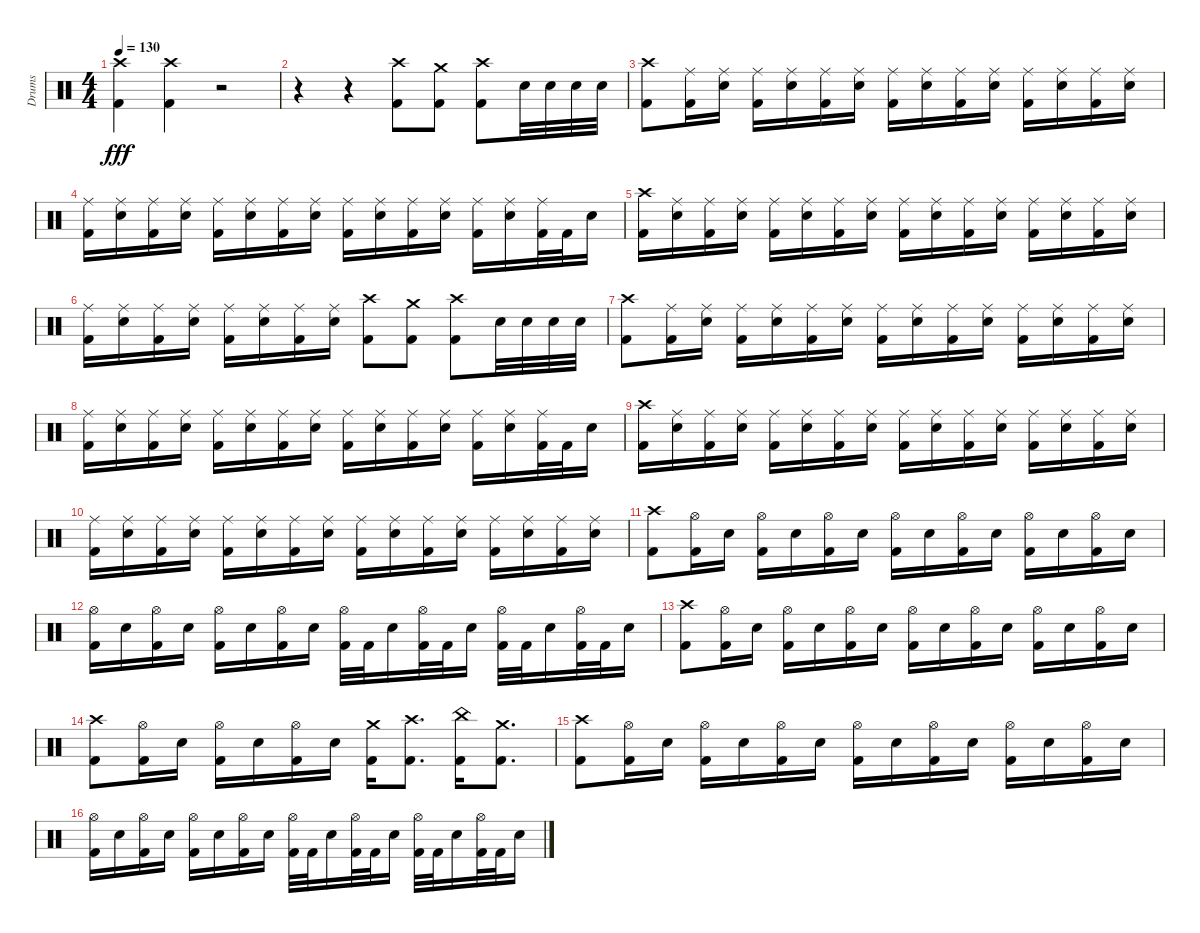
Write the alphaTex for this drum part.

\track ("Drums" "Drums") {instrument percussion}
\staff {score}
\articulation defaults
\ts (4 4)
\tempo 130
\clef neutral
\ks c
("Kick (hit) 2" "Crash high (hit)").4{dy fff} ("Kick (hit) 2" "Crash high (hit)").4 r.2 |
r.4 r.4 ("Kick (hit) 2" "Crash high (hit)").8 ("Kick (hit) 2" "Crash medium (hit)").8 ("Kick (hit) 2" "Crash high (hit)").8 "Snare (hit) 2".32 "Snare (hit) 2".32 "Snare (hit) 2".32 "Snare (hit) 2".32 |
("Kick (hit) 2" "Crash high (hit)").8 ("Kick (hit) 2" "Ride (middle)").16 ("Snare (hit) 2" "Ride (middle)").16 ("Kick (hit) 2" "Ride (middle)").16 ("Snare (hit) 2" "Ride (middle)").16 ("Kick (hit) 2" "Ride (middle)").16 ("Snare (hit) 2" "Ride (middle)").16 ("Kick (hit) 2" "Ride (middle)").16 ("Snare (hit) 2" "Ride (middle)").16 ("Kick (hit) 2" "Ride (middle)").16 ("Snare (hit) 2" "Ride (middle)").16 ("Kick (hit) 2" "Ride (middle)").16 ("Snare (hit) 2" "Ride (middle)").16 ("Kick (hit) 2" "Ride (middle)").16 ("Snare (hit) 2" "Ride (middle)").16 |
("Kick (hit) 2" "Ride (middle)").16 ("Snare (hit) 2" "Ride (middle)").16 ("Kick (hit) 2" "Ride (middle)").16 ("Snare (hit) 2" "Ride (middle)").16 ("Kick (hit) 2" "Ride (middle)").16 ("Snare (hit) 2" "Ride (middle)").16 ("Kick (hit) 2" "Ride (middle)").16 ("Snare (hit) 2" "Ride (middle)").16 ("Kick (hit) 2" "Ride (middle)").16 ("Snare (hit) 2" "Ride (middle)").16 ("Kick (hit) 2" "Ride (middle)").16 ("Snare (hit) 2" "Ride (middle)").16 ("Kick (hit) 2" "Ride (middle)").16 ("Snare (hit) 2" "Ride (middle)").16 ("Kick (hit) 2" "Ride (middle)").32 "Kick (hit) 2".32 "Snare (hit) 2".16 |
("Kick (hit) 2" "Crash high (hit)").16 ("Snare (hit) 2" "Ride (middle)").16 ("Kick (hit) 2" "Ride (middle)").16 ("Snare (hit) 2" "Ride (middle)").16 ("Kick (hit) 2" "Ride (middle)").16 ("Snare (hit) 2" "Ride (middle)").16 ("Kick (hit) 2" "Ride (middle)").16 ("Snare (hit) 2" "Ride (middle)").16 ("Kick (hit) 2" "Ride (middle)").16 ("Snare (hit) 2" "Ride (middle)").16 ("Kick (hit) 2" "Ride (middle)").16 ("Snare (hit) 2" "Ride (middle)").16 ("Kick (hit) 2" "Ride (middle)").16 ("Snare (hit) 2" "Ride (middle)").16 ("Kick (hit) 2" "Ride (middle)").16 ("Snare (hit) 2" "Ride (middle)").16 |
("Kick (hit) 2" "Ride (middle)").16 ("Snare (hit) 2" "Ride (middle)").16 ("Kick (hit) 2" "Ride (middle)").16 ("Snare (hit) 2" "Ride (middle)").16 ("Kick (hit) 2" "Ride (middle)").16 ("Snare (hit) 2" "Ride (middle)").16 ("Kick (hit) 2" "Ride (middle)").16 ("Snare (hit) 2" "Ride (middle)").16 ("Kick (hit) 2" "Crash high (hit)").8 ("Kick (hit) 2" "Crash medium (hit)").8 ("Kick (hit) 2" "Crash high (hit)").8 "Snare (hit) 2".32 "Snare (hit) 2".32 "Snare (hit) 2".32 "Snare (hit) 2".32 |
("Kick (hit) 2" "Crash high (hit)").8 ("Kick (hit) 2" "Ride (middle)").16 ("Snare (hit) 2" "Ride (middle)").16 ("Kick (hit) 2" "Ride (middle)").16 ("Snare (hit) 2" "Ride (middle)").16 ("Kick (hit) 2" "Ride (middle)").16 ("Snare (hit) 2" "Ride (middle)").16 ("Kick (hit) 2" "Ride (middle)").16 ("Snare (hit) 2" "Ride (middle)").16 ("Kick (hit) 2" "Ride (middle)").16 ("Snare (hit) 2" "Ride (middle)").16 ("Kick (hit) 2" "Ride (middle)").16 ("Snare (hit) 2" "Ride (middle)").16 ("Kick (hit) 2" "Ride (middle)").16 ("Snare (hit) 2" "Ride (middle)").16 |
("Kick (hit) 2" "Ride (middle)").16 ("Snare (hit) 2" "Ride (middle)").16 ("Kick (hit) 2" "Ride (middle)").16 ("Snare (hit) 2" "Ride (middle)").16 ("Kick (hit) 2" "Ride (middle)").16 ("Snare (hit) 2" "Ride (middle)").16 ("Kick (hit) 2" "Ride (middle)").16 ("Snare (hit) 2" "Ride (middle)").16 ("Kick (hit) 2" "Ride (middle)").16 ("Snare (hit) 2" "Ride (middle)").16 ("Kick (hit) 2" "Ride (middle)").16 ("Snare (hit) 2" "Ride (middle)").16 ("Kick (hit) 2" "Ride (middle)").16 ("Snare (hit) 2" "Ride (middle)").16 ("Kick (hit) 2" "Ride (middle)").32 "Kick (hit) 2".32 "Snare (hit) 2".16 |
("Kick (hit) 2" "Crash high (hit)").16 ("Snare (hit) 2" "Ride (middle)").16 ("Kick (hit) 2" "Ride (middle)").16 ("Snare (hit) 2" "Ride (middle)").16 ("Kick (hit) 2" "Ride (middle)").16 ("Snare (hit) 2" "Ride (middle)").16 ("Kick (hit) 2" "Ride (middle)").16 ("Snare (hit) 2" "Ride (middle)").16 ("Kick (hit) 2" "Ride (middle)").16 ("Snare (hit) 2" "Ride (middle)").16 ("Kick (hit) 2" "Ride (middle)").16 ("Snare (hit) 2" "Ride (middle)").16 ("Kick (hit) 2" "Ride (middle)").16 ("Snare (hit) 2" "Ride (middle)").16 ("Kick (hit) 2" "Ride (middle)").16 ("Snare (hit) 2" "Ride (middle)").16 |
("Kick (hit) 2" "Ride (middle)").16 ("Snare (hit) 2" "Ride (middle)").16 ("Kick (hit) 2" "Ride (middle)").16 ("Snare (hit) 2" "Ride (middle)").16 ("Kick (hit) 2" "Ride (middle)").16 ("Snare (hit) 2" "Ride (middle)").16 ("Kick (hit) 2" "Ride (middle)").16 ("Snare (hit) 2" "Ride (middle)").16 ("Kick (hit) 2" "Ride (middle)").16 ("Snare (hit) 2" "Ride (middle)").16 ("Kick (hit) 2" "Ride (middle)").16 ("Snare (hit) 2" "Ride (middle)").16 ("Kick (hit) 2" "Ride (middle)").16 ("Snare (hit) 2" "Ride (middle)").16 ("Kick (hit) 2" "Ride (middle)").16 ("Snare (hit) 2" "Ride (middle)").16 |
("Kick (hit) 2" "Crash high (hit)").8 ("Kick (hit) 2" "Hi-Hat (open)").16 "Snare (hit) 2".16 ("Kick (hit) 2" "Hi-Hat (open)").16 "Snare (hit) 2".16 ("Kick (hit) 2" "Hi-Hat (open)").16 "Snare (hit) 2".16 ("Kick (hit) 2" "Hi-Hat (open)").16 "Snare (hit) 2".16 ("Kick (hit) 2" "Hi-Hat (open)").16 "Snare (hit) 2".16 ("Kick (hit) 2" "Hi-Hat (open)").16 "Snare (hit) 2".16 ("Kick (hit) 2" "Hi-Hat (open)").16 "Snare (hit) 2".16 |
("Kick (hit) 2" "Hi-Hat (open)").16 "Snare (hit) 2".16 ("Kick (hit) 2" "Hi-Hat (open)").16 "Snare (hit) 2".16 ("Kick (hit) 2" "Hi-Hat (open)").16 "Snare (hit) 2".16 ("Kick (hit) 2" "Hi-Hat (open)").16 "Snare (hit) 2".16 ("Kick (hit) 2" "Hi-Hat (open)").32 "Kick (hit) 2".32 "Snare (hit) 2".16 ("Kick (hit) 2" "Hi-Hat (open)").32 "Kick (hit) 2".32 "Snare (hit) 2".16 ("Kick (hit) 2" "Hi-Hat (open)").32 "Kick (hit) 2".32 "Snare (hit) 2".16 ("Kick (hit) 2" "Hi-Hat (open)").32 "Kick (hit) 2".32 "Snare (hit) 2".16 |
("Kick (hit) 2" "Crash high (hit)").8 ("Kick (hit) 2" "Hi-Hat (open)").16 "Snare (hit) 2".16 ("Kick (hit) 2" "Hi-Hat (open)").16 "Snare (hit) 2".16 ("Kick (hit) 2" "Hi-Hat (open)").16 "Snare (hit) 2".16 ("Kick (hit) 2" "Hi-Hat (open)").16 "Snare (hit) 2".16 ("Kick (hit) 2" "Hi-Hat (open)").16 "Snare (hit) 2".16 ("Kick (hit) 2" "Hi-Hat (open)").16 "Snare (hit) 2".16 ("Kick (hit) 2" "Hi-Hat (open)").16 "Snare (hit) 2".16 |
("Kick (hit) 2" "Crash high (hit)").8 ("Kick (hit) 2" "Hi-Hat (open)").16 "Snare (hit) 2".16 ("Kick (hit) 2" "Hi-Hat (open)").16 "Snare (hit) 2".16 ("Kick (hit) 2" "Hi-Hat (open)").16 "Snare (hit) 2".16 ("Kick (hit) 2" "Crash medium (hit)").16 ("Kick (hit) 2" "Crash high (hit)").8{d} ("Kick (hit) 2" "China (hit)").16 ("Kick (hit) 2" "Crash medium (hit)").8{d} |
("Kick (hit) 2" "Crash high (hit)").8 ("Kick (hit) 2" "Hi-Hat (open)").16 "Snare (hit) 2".16 ("Kick (hit) 2" "Hi-Hat (open)").16 "Snare (hit) 2".16 ("Kick (hit) 2" "Hi-Hat (open)").16 "Snare (hit) 2".16 ("Kick (hit) 2" "Hi-Hat (open)").16 "Snare (hit) 2".16 ("Kick (hit) 2" "Hi-Hat (open)").16 "Snare (hit) 2".16 ("Kick (hit) 2" "Hi-Hat (open)").16 "Snare (hit) 2".16 ("Kick (hit) 2" "Hi-Hat (open)").16 "Snare (hit) 2".16 |
("Kick (hit) 2" "Hi-Hat (open)").16 "Snare (hit) 2".16 ("Kick (hit) 2" "Hi-Hat (open)").16 "Snare (hit) 2".16 ("Kick (hit) 2" "Hi-Hat (open)").16 "Snare (hit) 2".16 ("Kick (hit) 2" "Hi-Hat (open)").16 "Snare (hit) 2".16 ("Kick (hit) 2" "Hi-Hat (open)").32 "Kick (hit) 2".32 "Snare (hit) 2".16 ("Kick (hit) 2" "Hi-Hat (open)").32 "Kick (hit) 2".32 "Snare (hit) 2".16 ("Kick (hit) 2" "Hi-Hat (open)").32 "Kick (hit) 2".32 "Snare (hit) 2".16 ("Kick (hit) 2" "Hi-Hat (open)").32 "Kick (hit) 2".32 "Snare (hit) 2".16
